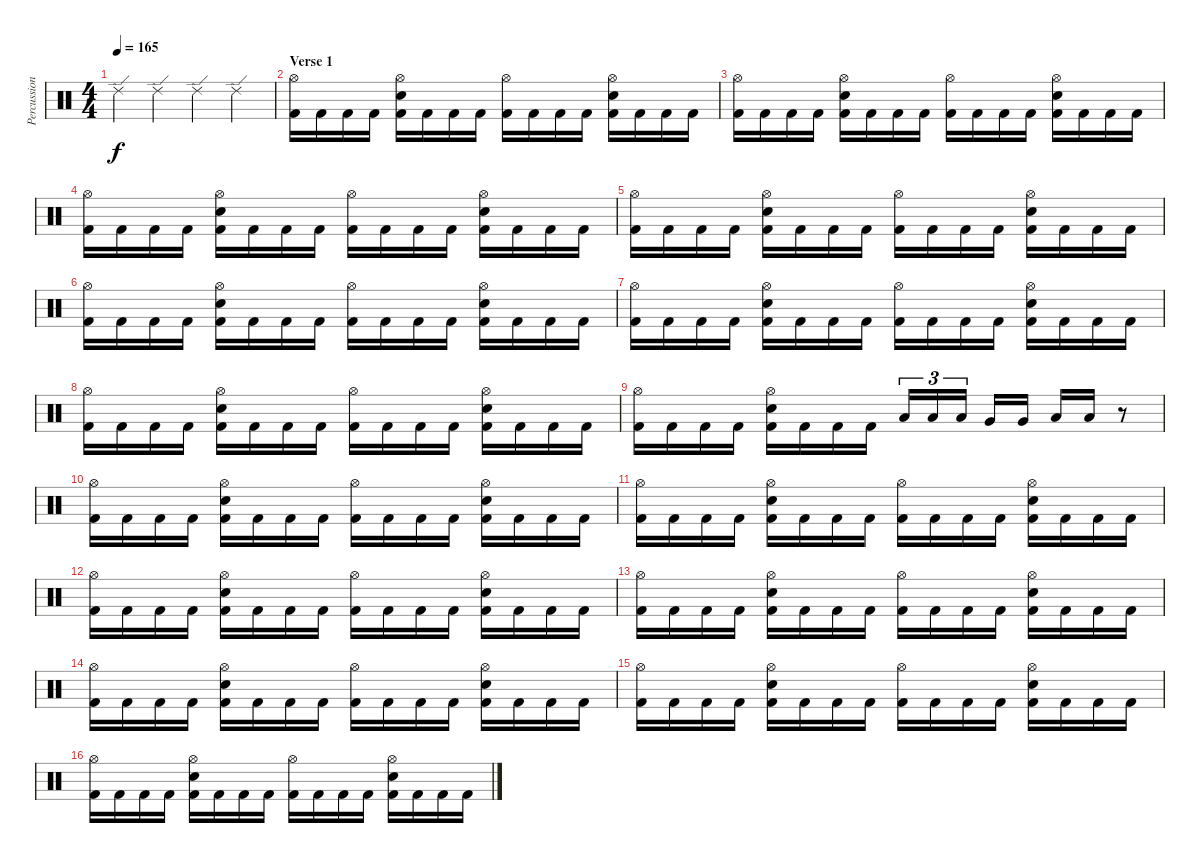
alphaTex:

\track ("Percussions" "Percussion") {instrument percussion}
\staff {score}
\articulation defaults
\ts (4 4)
\tempo 165
\clef neutral
\ks c "Ride (edge) 2".4{dy f} "Ride (edge) 2".4 "Ride (edge) 2".4 "Ride (edge) 2".4
|
\section ("" "Verse 1")
("Hi-Hat (open)" "Kick (hit) 2").16 "Kick (hit) 2".16 "Kick (hit) 2".16 "Kick (hit) 2".16 ("Hi-Hat (open)" "Electric Snare (hit)" "Kick (hit) 2").16 "Kick (hit) 2".16 "Kick (hit) 2".16 "Kick (hit) 2".16 ("Hi-Hat (open)" "Kick (hit) 2").16 "Kick (hit) 2".16 "Kick (hit) 2".16 "Kick (hit) 2".16 ("Hi-Hat (open)" "Electric Snare (hit)" "Kick (hit) 2").16 "Kick (hit) 2".16 "Kick (hit) 2".16 "Kick (hit) 2".16 |
("Hi-Hat (open)" "Kick (hit) 2").16 "Kick (hit) 2".16 "Kick (hit) 2".16 "Kick (hit) 2".16 ("Hi-Hat (open)" "Electric Snare (hit)" "Kick (hit) 2").16 "Kick (hit) 2".16 "Kick (hit) 2".16 "Kick (hit) 2".16 ("Hi-Hat (open)" "Kick (hit) 2").16 "Kick (hit) 2".16 "Kick (hit) 2".16 "Kick (hit) 2".16 ("Hi-Hat (open)" "Electric Snare (hit)" "Kick (hit) 2").16 "Kick (hit) 2".16 "Kick (hit) 2".16 "Kick (hit) 2".16 |
("Hi-Hat (open)" "Kick (hit) 2").16 "Kick (hit) 2".16 "Kick (hit) 2".16 "Kick (hit) 2".16 ("Hi-Hat (open)" "Electric Snare (hit)" "Kick (hit) 2").16 "Kick (hit) 2".16 "Kick (hit) 2".16 "Kick (hit) 2".16 ("Hi-Hat (open)" "Kick (hit) 2").16 "Kick (hit) 2".16 "Kick (hit) 2".16 "Kick (hit) 2".16 ("Hi-Hat (open)" "Electric Snare (hit)" "Kick (hit) 2").16 "Kick (hit) 2".16 "Kick (hit) 2".16 "Kick (hit) 2".16 |
("Hi-Hat (open)" "Kick (hit) 2").16 "Kick (hit) 2".16 "Kick (hit) 2".16 "Kick (hit) 2".16 ("Hi-Hat (open)" "Electric Snare (hit)" "Kick (hit) 2").16 "Kick (hit) 2".16 "Kick (hit) 2".16 "Kick (hit) 2".16 ("Hi-Hat (open)" "Kick (hit) 2").16 "Kick (hit) 2".16 "Kick (hit) 2".16 "Kick (hit) 2".16 ("Hi-Hat (open)" "Electric Snare (hit)" "Kick (hit) 2").16 "Kick (hit) 2".16 "Kick (hit) 2".16 "Kick (hit) 2".16 |
("Hi-Hat (open)" "Kick (hit) 2").16 "Kick (hit) 2".16 "Kick (hit) 2".16 "Kick (hit) 2".16 ("Hi-Hat (open)" "Electric Snare (hit)" "Kick (hit) 2").16 "Kick (hit) 2".16 "Kick (hit) 2".16 "Kick (hit) 2".16 ("Hi-Hat (open)" "Kick (hit) 2").16 "Kick (hit) 2".16 "Kick (hit) 2".16 "Kick (hit) 2".16 ("Hi-Hat (open)" "Electric Snare (hit)" "Kick (hit) 2").16 "Kick (hit) 2".16 "Kick (hit) 2".16 "Kick (hit) 2".16 |
("Hi-Hat (open)" "Kick (hit) 2").16 "Kick (hit) 2".16 "Kick (hit) 2".16 "Kick (hit) 2".16 ("Hi-Hat (open)" "Electric Snare (hit)" "Kick (hit) 2").16 "Kick (hit) 2".16 "Kick (hit) 2".16 "Kick (hit) 2".16 ("Hi-Hat (open)" "Kick (hit) 2").16 "Kick (hit) 2".16 "Kick (hit) 2".16 "Kick (hit) 2".16 ("Hi-Hat (open)" "Electric Snare (hit)" "Kick (hit) 2").16 "Kick (hit) 2".16 "Kick (hit) 2".16 "Kick (hit) 2".16 |
("Hi-Hat (open)" "Kick (hit) 2").16 "Kick (hit) 2".16 "Kick (hit) 2".16 "Kick (hit) 2".16 ("Hi-Hat (open)" "Electric Snare (hit)" "Kick (hit) 2").16 "Kick (hit) 2".16 "Kick (hit) 2".16 "Kick (hit) 2".16 ("Hi-Hat (open)" "Kick (hit) 2").16 "Kick (hit) 2".16 "Kick (hit) 2".16 "Kick (hit) 2".16 ("Hi-Hat (open)" "Electric Snare (hit)" "Kick (hit) 2").16 "Kick (hit) 2".16 "Kick (hit) 2".16 "Kick (hit) 2".16 |
("Hi-Hat (open)" "Kick (hit) 2").16 "Kick (hit) 2".16 "Kick (hit) 2".16 "Kick (hit) 2".16 ("Hi-Hat (open)" "Electric Snare (hit)" "Kick (hit) 2").16 "Kick (hit) 2".16 "Kick (hit) 2".16 "Kick (hit) 2".16 "Low Tom (hit)".16{tu (3 2)} "Low Tom (hit)".16{tu (3 2)} "Low Tom (hit)".16{tu (3 2)} "Very Low Tom (hit)".16 "Very Low Tom (hit)".16 "Low Floor Tom (hit)".16 "Low Floor Tom (hit)".16 r.8 |
("Hi-Hat (open)" "Kick (hit) 2").16 "Kick (hit) 2".16 "Kick (hit) 2".16 "Kick (hit) 2".16 ("Hi-Hat (open)" "Electric Snare (hit)" "Kick (hit) 2").16 "Kick (hit) 2".16 "Kick (hit) 2".16 "Kick (hit) 2".16 ("Hi-Hat (open)" "Kick (hit) 2").16 "Kick (hit) 2".16 "Kick (hit) 2".16 "Kick (hit) 2".16 ("Hi-Hat (open)" "Electric Snare (hit)" "Kick (hit) 2").16 "Kick (hit) 2".16 "Kick (hit) 2".16 "Kick (hit) 2".16 |
("Hi-Hat (open)" "Kick (hit) 2").16 "Kick (hit) 2".16 "Kick (hit) 2".16 "Kick (hit) 2".16 ("Hi-Hat (open)" "Electric Snare (hit)" "Kick (hit) 2").16 "Kick (hit) 2".16 "Kick (hit) 2".16 "Kick (hit) 2".16 ("Hi-Hat (open)" "Kick (hit) 2").16 "Kick (hit) 2".16 "Kick (hit) 2".16 "Kick (hit) 2".16 ("Hi-Hat (open)" "Electric Snare (hit)" "Kick (hit) 2").16 "Kick (hit) 2".16 "Kick (hit) 2".16 "Kick (hit) 2".16 |
("Hi-Hat (open)" "Kick (hit) 2").16 "Kick (hit) 2".16 "Kick (hit) 2".16 "Kick (hit) 2".16 ("Hi-Hat (open)" "Electric Snare (hit)" "Kick (hit) 2").16 "Kick (hit) 2".16 "Kick (hit) 2".16 "Kick (hit) 2".16 ("Hi-Hat (open)" "Kick (hit) 2").16 "Kick (hit) 2".16 "Kick (hit) 2".16 "Kick (hit) 2".16 ("Hi-Hat (open)" "Electric Snare (hit)" "Kick (hit) 2").16 "Kick (hit) 2".16 "Kick (hit) 2".16 "Kick (hit) 2".16 |
("Hi-Hat (open)" "Kick (hit) 2").16 "Kick (hit) 2".16 "Kick (hit) 2".16 "Kick (hit) 2".16 ("Hi-Hat (open)" "Electric Snare (hit)" "Kick (hit) 2").16 "Kick (hit) 2".16 "Kick (hit) 2".16 "Kick (hit) 2".16 ("Hi-Hat (open)" "Kick (hit) 2").16 "Kick (hit) 2".16 "Kick (hit) 2".16 "Kick (hit) 2".16 ("Hi-Hat (open)" "Electric Snare (hit)" "Kick (hit) 2").16 "Kick (hit) 2".16 "Kick (hit) 2".16 "Kick (hit) 2".16 |
("Hi-Hat (open)" "Kick (hit) 2").16 "Kick (hit) 2".16 "Kick (hit) 2".16 "Kick (hit) 2".16 ("Hi-Hat (open)" "Electric Snare (hit)" "Kick (hit) 2").16 "Kick (hit) 2".16 "Kick (hit) 2".16 "Kick (hit) 2".16 ("Hi-Hat (open)" "Kick (hit) 2").16 "Kick (hit) 2".16 "Kick (hit) 2".16 "Kick (hit) 2".16 ("Hi-Hat (open)" "Electric Snare (hit)" "Kick (hit) 2").16 "Kick (hit) 2".16 "Kick (hit) 2".16 "Kick (hit) 2".16 |
("Hi-Hat (open)" "Kick (hit) 2").16 "Kick (hit) 2".16 "Kick (hit) 2".16 "Kick (hit) 2".16 ("Hi-Hat (open)" "Electric Snare (hit)" "Kick (hit) 2").16 "Kick (hit) 2".16 "Kick (hit) 2".16 "Kick (hit) 2".16 ("Hi-Hat (open)" "Kick (hit) 2").16 "Kick (hit) 2".16 "Kick (hit) 2".16 "Kick (hit) 2".16 ("Hi-Hat (open)" "Electric Snare (hit)" "Kick (hit) 2").16 "Kick (hit) 2".16 "Kick (hit) 2".16 "Kick (hit) 2".16 |
("Hi-Hat (open)" "Kick (hit) 2").16 "Kick (hit) 2".16 "Kick (hit) 2".16 "Kick (hit) 2".16 ("Hi-Hat (open)" "Electric Snare (hit)" "Kick (hit) 2").16 "Kick (hit) 2".16 "Kick (hit) 2".16 "Kick (hit) 2".16 ("Hi-Hat (open)" "Kick (hit) 2").16 "Kick (hit) 2".16 "Kick (hit) 2".16 "Kick (hit) 2".16 ("Hi-Hat (open)" "Electric Snare (hit)" "Kick (hit) 2").16 "Kick (hit) 2".16 "Kick (hit) 2".16 "Kick (hit) 2".16
